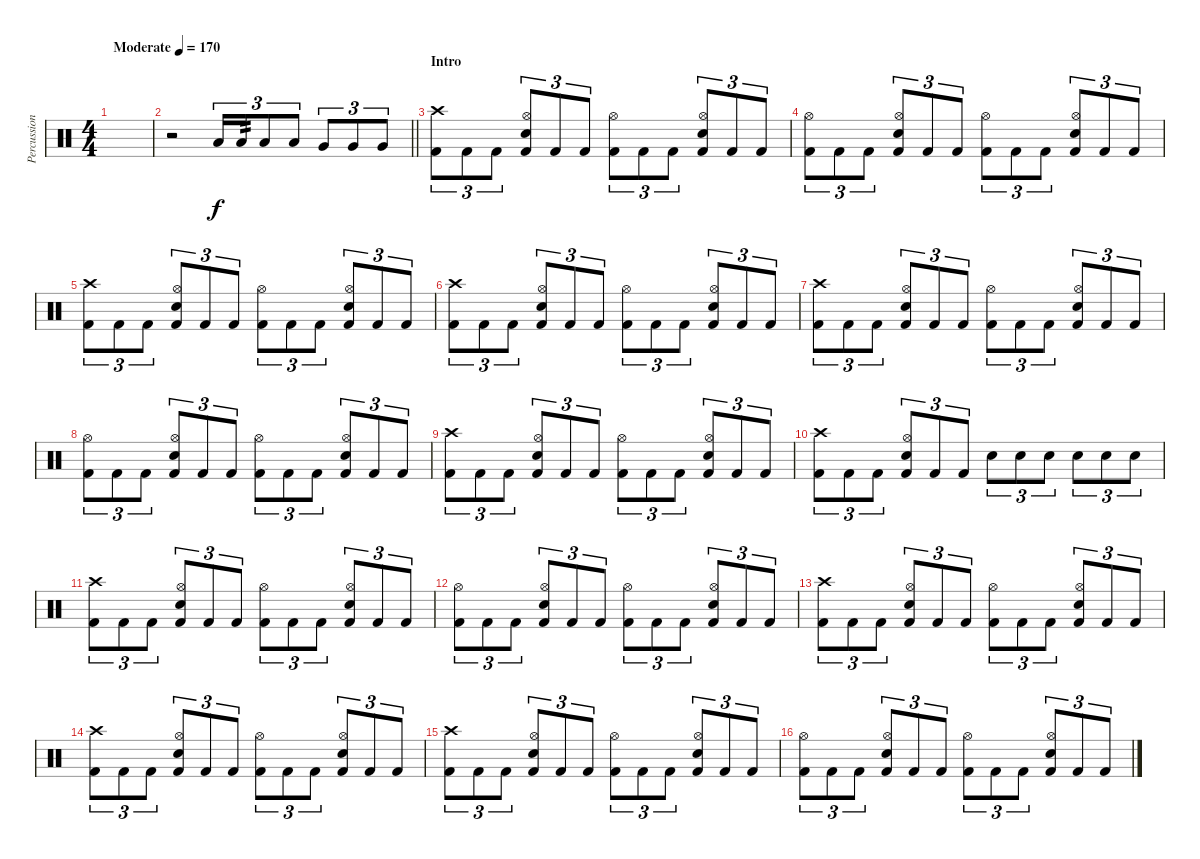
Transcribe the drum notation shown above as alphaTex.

\track ("Percussion" "Percussion") {instrument percussion}
\staff {score}
\articulation defaults
\ts (4 4)
\tempo (170 "Moderate")
\clef neutral
\ks c
|
\barLineRight lightlight
r.2 "Low Tom (hit)".16{tu (3 2)} "Low Tom (hit)".16{tu (3 2) tp 2} "Low Tom (hit)".8{tu (3 2)} "Low Tom (hit)".8{tu (3 2)} "Very Low Tom (hit)".8{tu (3 2)} "Very Low Tom (hit)".8{tu (3 2)} "Very Low Tom (hit)".8{tu (3 2)} |
\section ("" "Intro")
("Crash high (hit)" "Kick (hit) 2").8{tu (3 2)} "Kick (hit) 2".8{tu (3 2)} "Kick (hit) 2".8{tu (3 2)} ("Hi-Hat (open)" "Snare (hit) 2" "Kick (hit) 2").8{tu (3 2)} "Kick (hit) 2".8{tu (3 2)} "Kick (hit) 2".8{tu (3 2)} ("Hi-Hat (open)" "Kick (hit) 2").8{tu (3 2)} "Kick (hit) 2".8{tu (3 2)} "Kick (hit) 2".8{tu (3 2)} ("Hi-Hat (open)" "Snare (hit) 2" "Kick (hit) 2").8{tu (3 2)} "Kick (hit) 2".8{tu (3 2)} "Kick (hit) 2".8{tu (3 2)} |
("Hi-Hat (open)" "Kick (hit) 2").8{tu (3 2)} "Kick (hit) 2".8{tu (3 2)} "Kick (hit) 2".8{tu (3 2)} ("Hi-Hat (open)" "Snare (hit) 2" "Kick (hit) 2").8{tu (3 2)} "Kick (hit) 2".8{tu (3 2)} "Kick (hit) 2".8{tu (3 2)} ("Hi-Hat (open)" "Kick (hit) 2").8{tu (3 2)} "Kick (hit) 2".8{tu (3 2)} "Kick (hit) 2".8{tu (3 2)} ("Hi-Hat (open)" "Snare (hit) 2" "Kick (hit) 2").8{tu (3 2)} "Kick (hit) 2".8{tu (3 2)} "Kick (hit) 2".8{tu (3 2)} |
("Crash high (hit)" "Kick (hit) 2").8{tu (3 2)} "Kick (hit) 2".8{tu (3 2)} "Kick (hit) 2".8{tu (3 2)} ("Hi-Hat (open)" "Snare (hit) 2" "Kick (hit) 2").8{tu (3 2)} "Kick (hit) 2".8{tu (3 2)} "Kick (hit) 2".8{tu (3 2)} ("Hi-Hat (open)" "Kick (hit) 2").8{tu (3 2)} "Kick (hit) 2".8{tu (3 2)} "Kick (hit) 2".8{tu (3 2)} ("Hi-Hat (open)" "Snare (hit) 2" "Kick (hit) 2").8{tu (3 2)} "Kick (hit) 2".8{tu (3 2)} "Kick (hit) 2".8{tu (3 2)} |
("Crash high (hit)" "Kick (hit) 2").8{tu (3 2)} "Kick (hit) 2".8{tu (3 2)} "Kick (hit) 2".8{tu (3 2)} ("Hi-Hat (open)" "Snare (hit) 2" "Kick (hit) 2").8{tu (3 2)} "Kick (hit) 2".8{tu (3 2)} "Kick (hit) 2".8{tu (3 2)} ("Hi-Hat (open)" "Kick (hit) 2").8{tu (3 2)} "Kick (hit) 2".8{tu (3 2)} "Kick (hit) 2".8{tu (3 2)} ("Hi-Hat (open)" "Snare (hit) 2" "Kick (hit) 2").8{tu (3 2)} "Kick (hit) 2".8{tu (3 2)} "Kick (hit) 2".8{tu (3 2)} |
("Crash high (hit)" "Kick (hit) 2").8{tu (3 2)} "Kick (hit) 2".8{tu (3 2)} "Kick (hit) 2".8{tu (3 2)} ("Hi-Hat (open)" "Snare (hit) 2" "Kick (hit) 2").8{tu (3 2)} "Kick (hit) 2".8{tu (3 2)} "Kick (hit) 2".8{tu (3 2)} ("Hi-Hat (open)" "Kick (hit) 2").8{tu (3 2)} "Kick (hit) 2".8{tu (3 2)} "Kick (hit) 2".8{tu (3 2)} ("Hi-Hat (open)" "Snare (hit) 2" "Kick (hit) 2").8{tu (3 2)} "Kick (hit) 2".8{tu (3 2)} "Kick (hit) 2".8{tu (3 2)} |
("Hi-Hat (open)" "Kick (hit) 2").8{tu (3 2)} "Kick (hit) 2".8{tu (3 2)} "Kick (hit) 2".8{tu (3 2)} ("Hi-Hat (open)" "Snare (hit) 2" "Kick (hit) 2").8{tu (3 2)} "Kick (hit) 2".8{tu (3 2)} "Kick (hit) 2".8{tu (3 2)} ("Hi-Hat (open)" "Kick (hit) 2").8{tu (3 2)} "Kick (hit) 2".8{tu (3 2)} "Kick (hit) 2".8{tu (3 2)} ("Hi-Hat (open)" "Snare (hit) 2" "Kick (hit) 2").8{tu (3 2)} "Kick (hit) 2".8{tu (3 2)} "Kick (hit) 2".8{tu (3 2)} |
("Crash high (hit)" "Kick (hit) 2").8{tu (3 2)} "Kick (hit) 2".8{tu (3 2)} "Kick (hit) 2".8{tu (3 2)} ("Hi-Hat (open)" "Snare (hit) 2" "Kick (hit) 2").8{tu (3 2)} "Kick (hit) 2".8{tu (3 2)} "Kick (hit) 2".8{tu (3 2)} ("Hi-Hat (open)" "Kick (hit) 2").8{tu (3 2)} "Kick (hit) 2".8{tu (3 2)} "Kick (hit) 2".8{tu (3 2)} ("Hi-Hat (open)" "Snare (hit) 2" "Kick (hit) 2").8{tu (3 2)} "Kick (hit) 2".8{tu (3 2)} "Kick (hit) 2".8{tu (3 2)} |
("Crash high (hit)" "Kick (hit) 2").8{tu (3 2)} "Kick (hit) 2".8{tu (3 2)} "Kick (hit) 2".8{tu (3 2)} ("Hi-Hat (open)" "Snare (hit) 2" "Kick (hit) 2").8{tu (3 2)} "Kick (hit) 2".8{tu (3 2)} "Kick (hit) 2".8{tu (3 2)} "Electric Snare (hit)".8{tu (3 2)} "Electric Snare (hit)".8{tu (3 2)} "Electric Snare (hit)".8{tu (3 2)} "Electric Snare (hit)".8{tu (3 2)} "Electric Snare (hit)".8{tu (3 2)} "Electric Snare (hit)".8{tu (3 2)} |
("Crash high (hit)" "Kick (hit) 2").8{tu (3 2)} "Kick (hit) 2".8{tu (3 2)} "Kick (hit) 2".8{tu (3 2)} ("Hi-Hat (open)" "Snare (hit) 2" "Kick (hit) 2").8{tu (3 2)} "Kick (hit) 2".8{tu (3 2)} "Kick (hit) 2".8{tu (3 2)} ("Hi-Hat (open)" "Kick (hit) 2").8{tu (3 2)} "Kick (hit) 2".8{tu (3 2)} "Kick (hit) 2".8{tu (3 2)} ("Hi-Hat (open)" "Snare (hit) 2" "Kick (hit) 2").8{tu (3 2)} "Kick (hit) 2".8{tu (3 2)} "Kick (hit) 2".8{tu (3 2)} |
("Hi-Hat (open)" "Kick (hit) 2").8{tu (3 2)} "Kick (hit) 2".8{tu (3 2)} "Kick (hit) 2".8{tu (3 2)} ("Hi-Hat (open)" "Snare (hit) 2" "Kick (hit) 2").8{tu (3 2)} "Kick (hit) 2".8{tu (3 2)} "Kick (hit) 2".8{tu (3 2)} ("Hi-Hat (open)" "Kick (hit) 2").8{tu (3 2)} "Kick (hit) 2".8{tu (3 2)} "Kick (hit) 2".8{tu (3 2)} ("Hi-Hat (open)" "Snare (hit) 2" "Kick (hit) 2").8{tu (3 2)} "Kick (hit) 2".8{tu (3 2)} "Kick (hit) 2".8{tu (3 2)} |
("Crash high (hit)" "Kick (hit) 2").8{tu (3 2)} "Kick (hit) 2".8{tu (3 2)} "Kick (hit) 2".8{tu (3 2)} ("Hi-Hat (open)" "Snare (hit) 2" "Kick (hit) 2").8{tu (3 2)} "Kick (hit) 2".8{tu (3 2)} "Kick (hit) 2".8{tu (3 2)} ("Hi-Hat (open)" "Kick (hit) 2").8{tu (3 2)} "Kick (hit) 2".8{tu (3 2)} "Kick (hit) 2".8{tu (3 2)} ("Hi-Hat (open)" "Snare (hit) 2" "Kick (hit) 2").8{tu (3 2)} "Kick (hit) 2".8{tu (3 2)} "Kick (hit) 2".8{tu (3 2)} |
("Crash high (hit)" "Kick (hit) 2").8{tu (3 2)} "Kick (hit) 2".8{tu (3 2)} "Kick (hit) 2".8{tu (3 2)} ("Hi-Hat (open)" "Snare (hit) 2" "Kick (hit) 2").8{tu (3 2)} "Kick (hit) 2".8{tu (3 2)} "Kick (hit) 2".8{tu (3 2)} ("Hi-Hat (open)" "Kick (hit) 2").8{tu (3 2)} "Kick (hit) 2".8{tu (3 2)} "Kick (hit) 2".8{tu (3 2)} ("Hi-Hat (open)" "Snare (hit) 2" "Kick (hit) 2").8{tu (3 2)} "Kick (hit) 2".8{tu (3 2)} "Kick (hit) 2".8{tu (3 2)} |
("Crash high (hit)" "Kick (hit) 2").8{tu (3 2)} "Kick (hit) 2".8{tu (3 2)} "Kick (hit) 2".8{tu (3 2)} ("Hi-Hat (open)" "Snare (hit) 2" "Kick (hit) 2").8{tu (3 2)} "Kick (hit) 2".8{tu (3 2)} "Kick (hit) 2".8{tu (3 2)} ("Hi-Hat (open)" "Kick (hit) 2").8{tu (3 2)} "Kick (hit) 2".8{tu (3 2)} "Kick (hit) 2".8{tu (3 2)} ("Hi-Hat (open)" "Snare (hit) 2" "Kick (hit) 2").8{tu (3 2)} "Kick (hit) 2".8{tu (3 2)} "Kick (hit) 2".8{tu (3 2)} |
("Hi-Hat (open)" "Kick (hit) 2").8{tu (3 2)} "Kick (hit) 2".8{tu (3 2)} "Kick (hit) 2".8{tu (3 2)} ("Hi-Hat (open)" "Snare (hit) 2" "Kick (hit) 2").8{tu (3 2)} "Kick (hit) 2".8{tu (3 2)} "Kick (hit) 2".8{tu (3 2)} ("Hi-Hat (open)" "Kick (hit) 2").8{tu (3 2)} "Kick (hit) 2".8{tu (3 2)} "Kick (hit) 2".8{tu (3 2)} ("Hi-Hat (open)" "Snare (hit) 2" "Kick (hit) 2").8{tu (3 2)} "Kick (hit) 2".8{tu (3 2)} "Kick (hit) 2".8{tu (3 2)}
